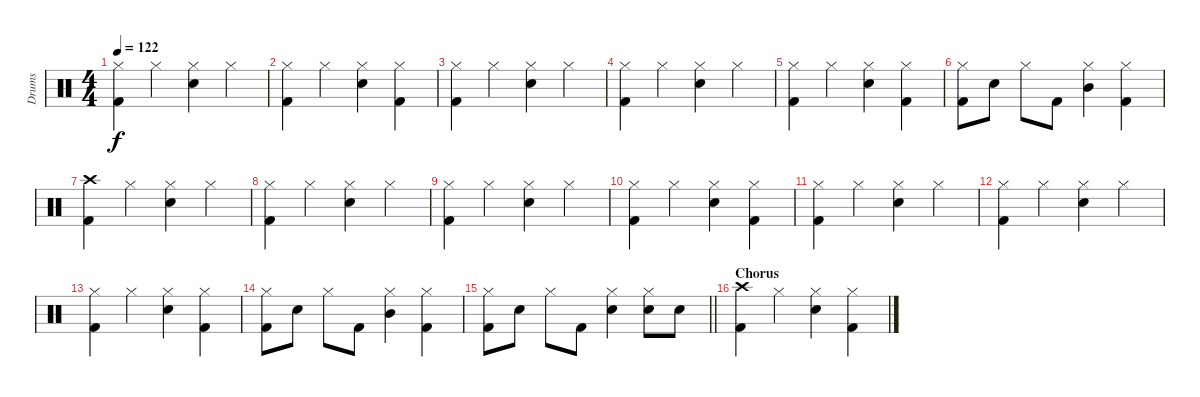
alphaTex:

\track ("Drums" "Drums") {instrument percussion}
\staff {score}
\articulation defaults
\ts (4 4)
\tempo 122
\clef neutral
\ks c
("Hi-Hat (closed)" "Kick (hit) 2").4{dy f} "Hi-Hat (closed)".4 ("Hi-Hat (closed)" "Electric Snare (hit)").4 "Hi-Hat (closed)".4 |
("Hi-Hat (closed)" "Kick (hit) 2").4 "Hi-Hat (closed)".4 ("Hi-Hat (closed)" "Electric Snare (hit)").4 ("Hi-Hat (closed)" "Kick (hit) 2").4 |
("Hi-Hat (closed)" "Kick (hit) 2").4 "Hi-Hat (closed)".4 ("Hi-Hat (closed)" "Electric Snare (hit)").4 "Hi-Hat (closed)".4 |
("Hi-Hat (closed)" "Kick (hit) 2").4 "Hi-Hat (closed)".4 ("Hi-Hat (closed)" "Electric Snare (hit)").4 "Hi-Hat (closed)".4 |
("Hi-Hat (closed)" "Kick (hit) 2").4 "Hi-Hat (closed)".4 ("Hi-Hat (closed)" "Electric Snare (hit)").4 ("Hi-Hat (closed)" "Kick (hit) 2").4 |
("Hi-Hat (closed)" "Kick (hit) 2").8 "Electric Snare (hit)".8 "Hi-Hat (closed)".8 "Kick (hit) 2".8 ("Hi-Hat (closed)" "Mid Tom (hit)").4 ("Hi-Hat (closed)" "Kick (hit) 2").4 |
("Crash high (hit)" "Kick (hit) 2").4 "Hi-Hat (closed)".4 ("Hi-Hat (closed)" "Electric Snare (hit)").4 "Hi-Hat (closed)".4 |
("Hi-Hat (closed)" "Kick (hit) 2").4 "Hi-Hat (closed)".4 ("Hi-Hat (closed)" "Electric Snare (hit)").4 "Hi-Hat (closed)".4 |
("Hi-Hat (closed)" "Kick (hit) 2").4 "Hi-Hat (closed)".4 ("Hi-Hat (closed)" "Electric Snare (hit)").4 "Hi-Hat (closed)".4 |
("Hi-Hat (closed)" "Kick (hit) 2").4 "Hi-Hat (closed)".4 ("Hi-Hat (closed)" "Electric Snare (hit)").4 ("Hi-Hat (closed)" "Kick (hit) 2").4 |
("Hi-Hat (closed)" "Kick (hit) 2").4 "Hi-Hat (closed)".4 ("Hi-Hat (closed)" "Electric Snare (hit)").4 "Hi-Hat (closed)".4 |
("Hi-Hat (closed)" "Kick (hit) 2").4 "Hi-Hat (closed)".4 ("Hi-Hat (closed)" "Electric Snare (hit)").4 "Hi-Hat (closed)".4 |
("Hi-Hat (closed)" "Kick (hit) 2").4 "Hi-Hat (closed)".4 ("Hi-Hat (closed)" "Electric Snare (hit)").4 ("Hi-Hat (closed)" "Kick (hit) 2").4 |
("Hi-Hat (closed)" "Kick (hit) 2").8 "Electric Snare (hit)".8 "Hi-Hat (closed)".8 "Kick (hit) 2".8 ("Hi-Hat (closed)" "Mid Tom (hit)").4 ("Hi-Hat (closed)" "Kick (hit) 2").4 |
\barLineRight lightlight
("Hi-Hat (closed)" "Kick (hit) 2").8 "Electric Snare (hit)".8 "Hi-Hat (closed)".8 "Kick (hit) 2".8 ("Hi-Hat (closed)" "Electric Snare (hit)").4 ("Hi-Hat (closed)" "Electric Snare (hit)").8 "Electric Snare (hit)".8 |
\section ("" "Chorus")
("Crash high (hit)" "Kick (hit) 2").4 "Hi-Hat (closed)".4 ("Hi-Hat (closed)" "Electric Snare (hit)").4 ("Hi-Hat (closed)" "Kick (hit) 2").4
